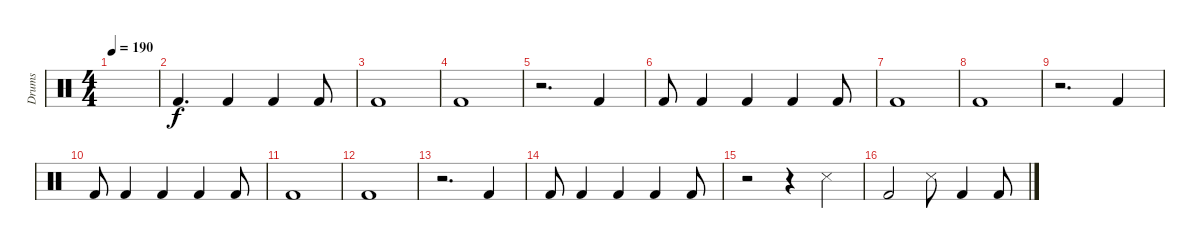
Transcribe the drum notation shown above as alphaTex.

\track ("Drums" "Drums") {instrument percussion}
\staff {score}
\articulation defaults
\ts (4 4)
\tempo 190
\clef neutral
\ks c
|
"Kick (hit) 2".4{d} "Kick (hit) 2".4 "Kick (hit) 2".4 "Kick (hit) 2".8 |
"Kick (hit) 2".1 |
"Kick (hit) 2".1 |
r.2{d} "Kick (hit) 2".4 |
"Kick (hit) 2".8 "Kick (hit) 2".4 "Kick (hit) 2".4 "Kick (hit) 2".4 "Kick (hit) 2".8 |
"Kick (hit) 2".1 |
"Kick (hit) 2".1 |
r.2{d} "Kick (hit) 2".4 |
"Kick (hit) 2".8 "Kick (hit) 2".4 "Kick (hit) 2".4 "Kick (hit) 2".4 "Kick (hit) 2".8 |
"Kick (hit) 2".1 |
"Kick (hit) 2".1 |
r.2{d} "Kick (hit) 2".4 |
"Kick (hit) 2".8 "Kick (hit) 2".4 "Kick (hit) 2".4 "Kick (hit) 2".4 "Kick (hit) 2".8 |
r.2 r.4 "Snare (side stick) 3".4 |
"Kick (hit) 2".2 "Snare (side stick) 3".8 "Kick (hit) 2".4 "Kick (hit) 2".8
